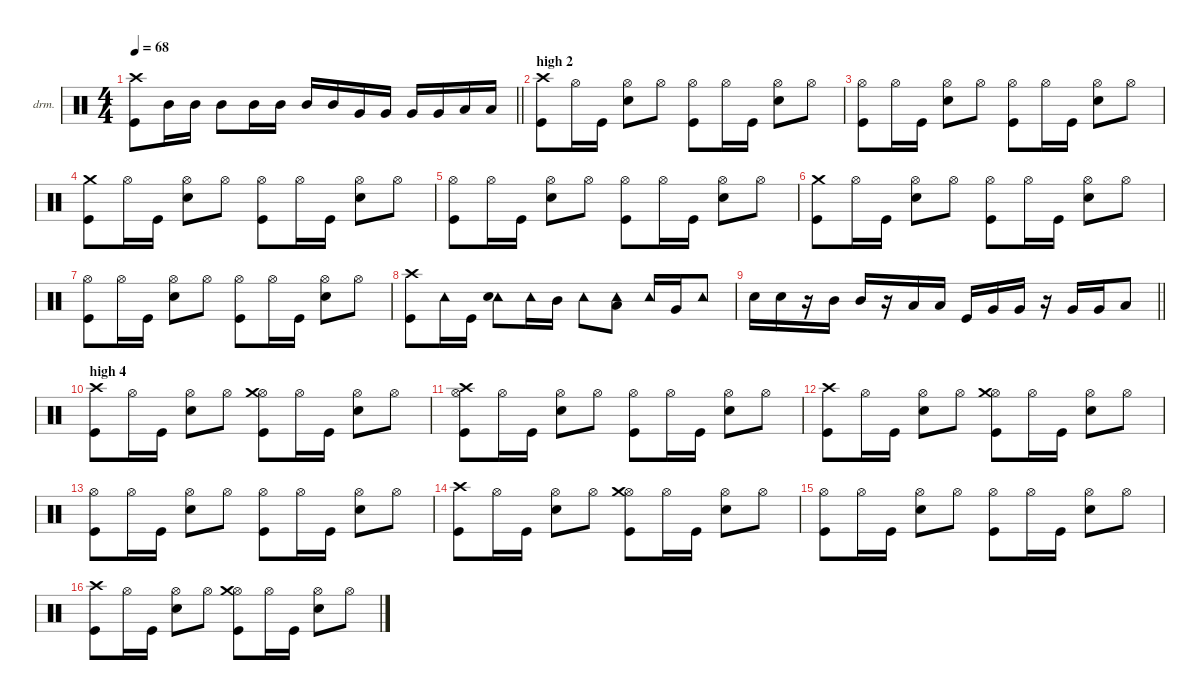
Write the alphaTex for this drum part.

\defaultSystemsLayout 4
\hideDynamics
\bracketExtendMode nobrackets
\firstSystemTrackNameOrientation horizontal
\otherSystemsTrackNameOrientation horizontal
\track ("Drums" "drm.") {instrument percussion}
\staff {score}
\articulation defaults
\ts (4 4)
\tempo 68
\clef neutral
\barLineRight lightlight
\ks c
("Kick (hit)" "Crash high (hit)").8{dy f} "Mid Tom (hit)".16 "Mid Tom (hit)".16 "Mid Tom (hit)".8 "Mid Tom (hit)".16 "Mid Tom (hit)".16 "Mid Tom (hit)".16 "Mid Tom (hit)".16 "Very Low Tom (hit)".16 "Very Low Tom (hit)".16 "Very Low Tom (hit)".16 "Very Low Tom (hit)".16 "Low Floor Tom (hit)".16 "Low Floor Tom (hit)".16 |
\section ("" "high 2")
("Kick (hit)" "Crash high (hit)").8 "Hi-Hat (open)".16 "Kick (hit)".16 ("Hi-Hat (open)" "Snare (hit) 2").8 "Hi-Hat (open)".8 ("Hi-Hat (open)" "Kick (hit)").8 "Hi-Hat (open)".16 "Kick (hit)".16 ("Hi-Hat (open)" "Snare (hit) 2").8 "Hi-Hat (open)".8 |
("Hi-Hat (open)" "Kick (hit)").8 "Hi-Hat (open)".16 "Kick (hit)".16 ("Hi-Hat (open)" "Snare (hit) 2").8 "Hi-Hat (open)".8 ("Hi-Hat (open)" "Kick (hit)").8 "Hi-Hat (open)".16 "Kick (hit)".16 ("Hi-Hat (open)" "Snare (hit) 2").8 "Hi-Hat (open)".8 |
("Kick (hit)" "Crash medium (hit)").8 "Hi-Hat (open)".16 "Kick (hit)".16 ("Hi-Hat (open)" "Snare (hit) 2").8 "Hi-Hat (open)".8 ("Hi-Hat (open)" "Kick (hit)").8 "Hi-Hat (open)".16 "Kick (hit)".16 ("Hi-Hat (open)" "Snare (hit) 2").8 "Hi-Hat (open)".8 |
("Hi-Hat (open)" "Kick (hit)").8 "Hi-Hat (open)".16 "Kick (hit)".16 ("Hi-Hat (open)" "Snare (hit) 2").8 "Hi-Hat (open)".8 ("Hi-Hat (open)" "Kick (hit)").8 "Hi-Hat (open)".16 "Kick (hit)".16 ("Hi-Hat (open)" "Snare (hit) 2").8 "Hi-Hat (open)".8 |
("Kick (hit)" "Crash medium (hit)").8 "Hi-Hat (open)".16 "Kick (hit)".16 ("Hi-Hat (open)" "Snare (hit) 2").8 "Hi-Hat (open)".8 ("Hi-Hat (open)" "Kick (hit)").8 "Hi-Hat (open)".16 "Kick (hit)".16 ("Hi-Hat (open)" "Snare (hit) 2").8 "Hi-Hat (open)".8 |
("Hi-Hat (open)" "Kick (hit)").8 "Hi-Hat (open)".16 "Kick (hit)".16 ("Hi-Hat (open)" "Snare (hit) 2").8 "Hi-Hat (open)".8 ("Hi-Hat (open)" "Kick (hit)").8 "Hi-Hat (open)".16 "Kick (hit)".16 ("Hi-Hat (open)" "Snare (hit) 2").8 "Hi-Hat (open)".8 |
("Crash high (hit)" "Kick (hit)").8 "Tambourine (hit)".16 "Kick (hit)".16 ("Tambourine (hit)" "Snare (hit) 2").8 "Tambourine (hit)".16 "Mid Tom (hit)".16 "Tambourine (hit)".8 ("Tambourine (hit)" "Low Tom (hit)").8 "Tambourine (hit)".16 "Very Low Tom (hit)".16 "Tambourine (hit)".8 |
\barLineRight lightlight "Snare (hit) 2".16 "Snare (hit) 2".16
r.16 "Mid Tom (hit)".16 "Mid Tom (hit)".16 r.16 "Low Tom (hit)".16 "Low Tom (hit)".16 "Kick (hit)".16 "Very Low Tom (hit)".16 "Very Low Tom (hit)".16 r.16 "Very Low Tom (hit)".16 "Very Low Tom (hit)".16 "Low Floor Tom (hit)".8 |
\section ("" "high 4")
("Kick (hit)" "Crash high (hit)").8 "Hi-Hat (open)".16 "Kick (hit)".16 ("Hi-Hat (open)" "Snare (hit) 2").8 "Hi-Hat (open)".8 ("Hi-Hat (open)" "Kick (hit)" "Crash medium (hit)").8 "Hi-Hat (open)".16 "Kick (hit)".16 ("Hi-Hat (open)" "Snare (hit) 2").8 "Hi-Hat (open)".8 |
("Hi-Hat (open)" "Kick (hit)" "Crash high (hit)").8 "Hi-Hat (open)".16 "Kick (hit)".16 ("Hi-Hat (open)" "Snare (hit) 2").8 "Hi-Hat (open)".8 ("Hi-Hat (open)" "Kick (hit)").8 "Hi-Hat (open)".16 "Kick (hit)".16 ("Hi-Hat (open)" "Snare (hit) 2").8 "Hi-Hat (open)".8 |
("Kick (hit)" "Crash high (hit)").8 "Hi-Hat (open)".16 "Kick (hit)".16 ("Hi-Hat (open)" "Snare (hit) 2").8 "Hi-Hat (open)".8 ("Hi-Hat (open)" "Kick (hit)" "Crash medium (hit)").8 "Hi-Hat (open)".16 "Kick (hit)".16 ("Hi-Hat (open)" "Snare (hit) 2").8 "Hi-Hat (open)".8 |
("Hi-Hat (open)" "Kick (hit)").8 "Hi-Hat (open)".16 "Kick (hit)".16 ("Hi-Hat (open)" "Snare (hit) 2").8 "Hi-Hat (open)".8 ("Hi-Hat (open)" "Kick (hit)").8 "Hi-Hat (open)".16 "Kick (hit)".16 ("Hi-Hat (open)" "Snare (hit) 2").8 "Hi-Hat (open)".8 |
("Kick (hit)" "Crash high (hit)").8 "Hi-Hat (open)".16 "Kick (hit)".16 ("Hi-Hat (open)" "Snare (hit) 2").8 "Hi-Hat (open)".8 ("Hi-Hat (open)" "Kick (hit)" "Crash medium (hit)").8 "Hi-Hat (open)".16 "Kick (hit)".16 ("Hi-Hat (open)" "Snare (hit) 2").8 "Hi-Hat (open)".8 |
("Hi-Hat (open)" "Kick (hit)").8 "Hi-Hat (open)".16 "Kick (hit)".16 ("Hi-Hat (open)" "Snare (hit) 2").8 "Hi-Hat (open)".8 ("Hi-Hat (open)" "Kick (hit)").8 "Hi-Hat (open)".16 "Kick (hit)".16 ("Hi-Hat (open)" "Snare (hit) 2").8 "Hi-Hat (open)".8 |
("Kick (hit)" "Crash high (hit)").8 "Hi-Hat (open)".16 "Kick (hit)".16 ("Hi-Hat (open)" "Snare (hit) 2").8 "Hi-Hat (open)".8 ("Hi-Hat (open)" "Kick (hit)" "Crash medium (hit)").8 "Hi-Hat (open)".16 "Kick (hit)".16 ("Hi-Hat (open)" "Snare (hit) 2").8 "Hi-Hat (open)".8
